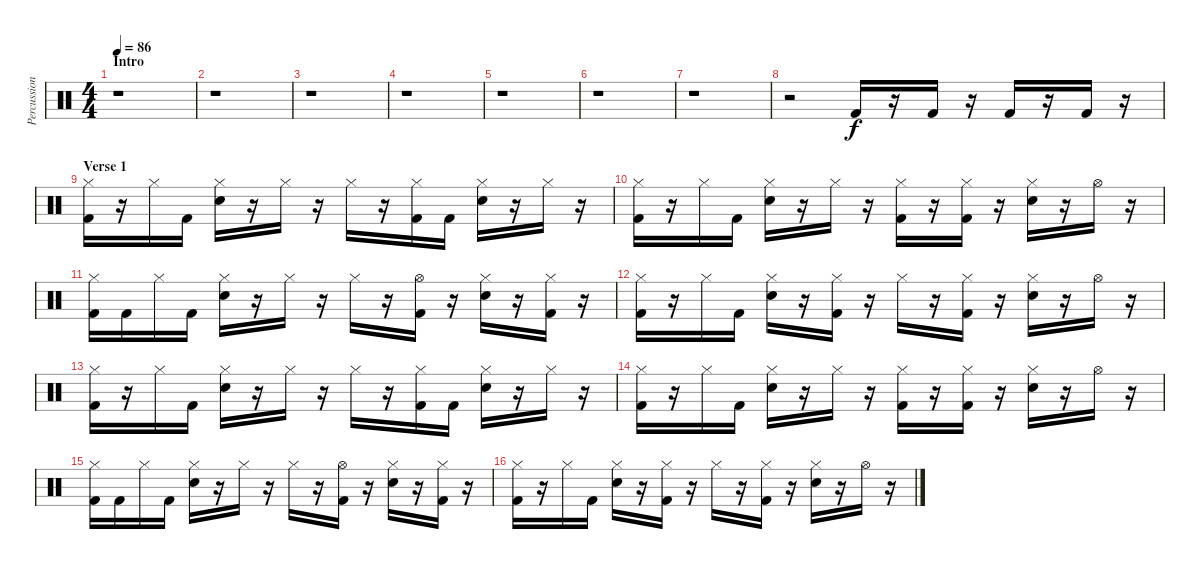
\track ("Percussions" "Percussion") {instrument percussion}
\staff {score}
\articulation defaults
\ts (4 4)
\section ("" "Intro")
\tempo 86
\clef neutral
\ks c
r.1{dy f} |
r.1 |
r.1 |
r.1 |
r.1 |
r.1 |
r.1 |
r.2 "Kick (hit) 2".16 r.16 "Kick (hit) 2".16 r.16 "Kick (hit) 2".16 r.16 "Kick (hit) 2".16 r.16 |
\section ("" "Verse 1")
("Hi-Hat (closed)" "Kick (hit) 2").16 r.16 "Hi-Hat (closed)".16 "Kick (hit) 2".16 ("Hi-Hat (closed)" "Snare (hit) 2").16 r.16 "Hi-Hat (closed)".16 r.16 "Hi-Hat (closed)".16 r.16 ("Hi-Hat (closed)" "Kick (hit) 2").16 "Kick (hit) 2".16 ("Hi-Hat (closed)" "Snare (hit) 2").16 r.16 "Hi-Hat (closed)".16 r.16 |
("Hi-Hat (closed)" "Kick (hit) 2").16 r.16 "Hi-Hat (closed)".16 "Kick (hit) 2".16 ("Hi-Hat (closed)" "Snare (hit) 2").16 r.16 "Hi-Hat (closed)".16 r.16 ("Hi-Hat (closed)" "Kick (hit) 2").16 r.16 ("Hi-Hat (closed)" "Kick (hit) 2").16 r.16 ("Hi-Hat (closed)" "Snare (hit) 2").16 r.16 "Hi-Hat (open)".16 r.16 |
("Hi-Hat (closed)" "Kick (hit) 2").16 "Kick (hit) 2".16 "Hi-Hat (closed)".16 "Kick (hit) 2".16 ("Hi-Hat (closed)" "Snare (hit) 2").16 r.16 "Hi-Hat (closed)".16 r.16 "Hi-Hat (closed)".16 r.16 ("Hi-Hat (open)" "Kick (hit) 2").16 r.16 ("Hi-Hat (closed)" "Snare (hit) 2").16 r.16 ("Hi-Hat (closed)" "Kick (hit) 2").16 r.16 |
("Hi-Hat (closed)" "Kick (hit) 2").16 r.16 "Hi-Hat (closed)".16 "Kick (hit) 2".16 ("Hi-Hat (closed)" "Snare (hit) 2").16 r.16 ("Hi-Hat (closed)" "Kick (hit) 2").16 r.16 "Hi-Hat (closed)".16 r.16 ("Hi-Hat (closed)" "Kick (hit) 2").16 r.16 ("Hi-Hat (closed)" "Snare (hit) 2").16 r.16 "Hi-Hat (open)".16 r.16 |
("Hi-Hat (closed)" "Kick (hit) 2").16 r.16 "Hi-Hat (closed)".16 "Kick (hit) 2".16 ("Hi-Hat (closed)" "Snare (hit) 2").16 r.16 "Hi-Hat (closed)".16 r.16 "Hi-Hat (closed)".16 r.16 ("Hi-Hat (closed)" "Kick (hit) 2").16 "Kick (hit) 2".16 ("Hi-Hat (closed)" "Snare (hit) 2").16 r.16 "Hi-Hat (closed)".16 r.16 |
("Hi-Hat (closed)" "Kick (hit) 2").16 r.16 "Hi-Hat (closed)".16 "Kick (hit) 2".16 ("Hi-Hat (closed)" "Snare (hit) 2").16 r.16 "Hi-Hat (closed)".16 r.16 ("Hi-Hat (closed)" "Kick (hit) 2").16 r.16 ("Hi-Hat (closed)" "Kick (hit) 2").16 r.16 ("Hi-Hat (closed)" "Snare (hit) 2").16 r.16 "Hi-Hat (open)".16 r.16 |
("Hi-Hat (closed)" "Kick (hit) 2").16 "Kick (hit) 2".16 "Hi-Hat (closed)".16 "Kick (hit) 2".16 ("Hi-Hat (closed)" "Snare (hit) 2").16 r.16 "Hi-Hat (closed)".16 r.16 "Hi-Hat (closed)".16 r.16 ("Hi-Hat (open)" "Kick (hit) 2").16 r.16 ("Hi-Hat (closed)" "Snare (hit) 2").16 r.16 ("Hi-Hat (closed)" "Kick (hit) 2").16 r.16 |
("Hi-Hat (closed)" "Kick (hit) 2").16 r.16 "Hi-Hat (closed)".16 "Kick (hit) 2".16 ("Hi-Hat (closed)" "Snare (hit) 2").16 r.16 ("Hi-Hat (closed)" "Kick (hit) 2").16 r.16 "Hi-Hat (closed)".16 r.16 ("Hi-Hat (closed)" "Kick (hit) 2").16 r.16 ("Hi-Hat (closed)" "Snare (hit) 2").16 r.16 "Hi-Hat (open)".16 r.16
